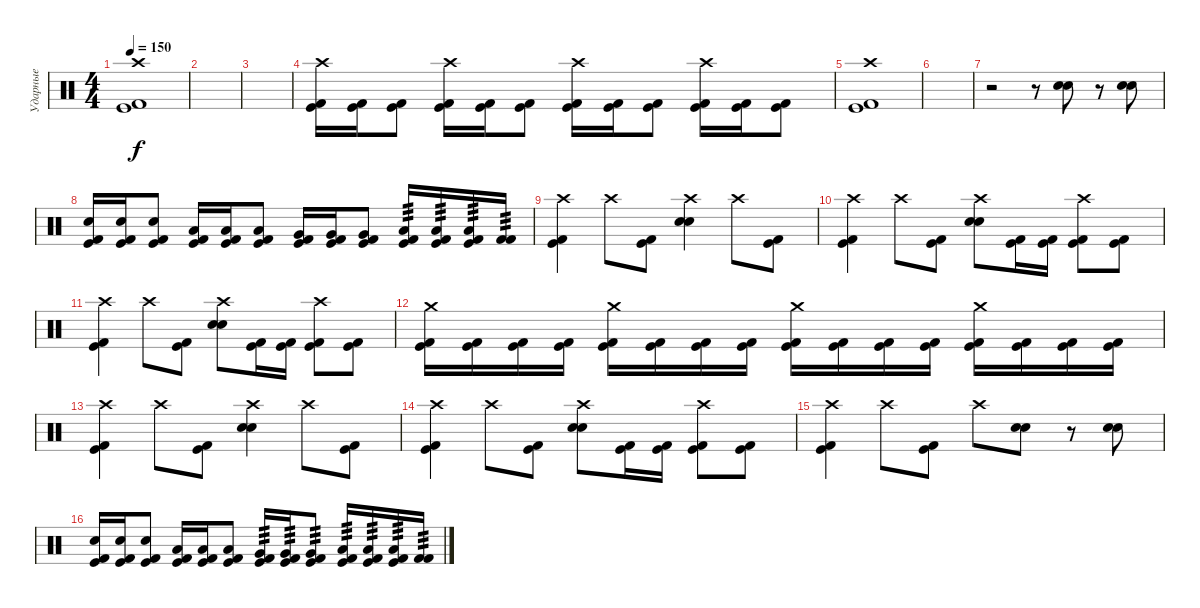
\track ("Ударные" "Ударные") {instrument percussion}
\staff {score}
\articulation defaults
\ts (4 4)
\tempo 150
\clef neutral
\ks c
("Kick (hit)" "Kick (hit) 2" "Crash high (hit)").1{dy f} |
|
|
("Kick (hit) 2" "Kick (hit)" "Crash high (hit)").16 ("Kick (hit) 2" "Kick (hit)").16 ("Kick (hit) 2" "Kick (hit)").8 ("Kick (hit) 2" "Kick (hit)" "Crash high (hit)").16 ("Kick (hit) 2" "Kick (hit)").16 ("Kick (hit) 2" "Kick (hit)").8 ("Kick (hit) 2" "Kick (hit)" "Crash high (hit)").16 ("Kick (hit) 2" "Kick (hit)").16 ("Kick (hit) 2" "Kick (hit)").8 ("Kick (hit) 2" "Kick (hit)" "Crash high (hit)").16 ("Kick (hit) 2" "Kick (hit)").16 ("Kick (hit) 2" "Kick (hit)").8 |
("Kick (hit)" "Kick (hit) 2" "Crash high (hit)").1 |
|
r.2 r.8 ("Snare (hit) 2" "Electric Snare (hit)").8 r.8 ("Snare (hit) 2" "Electric Snare (hit)").8 |
("Kick (hit) 2" "Kick (hit)" "Electric Snare (hit)").16 ("Kick (hit) 2" "Kick (hit)" "Electric Snare (hit)").16 ("Kick (hit) 2" "Kick (hit)" "Electric Snare (hit)").8 ("Kick (hit) 2" "Kick (hit)" "Low Tom (hit)").16 ("Kick (hit) 2" "Kick (hit)" "Low Tom (hit)").16 ("Kick (hit) 2" "Kick (hit)" "Low Tom (hit)").8 ("Kick (hit) 2" "Kick (hit)" "Very Low Tom (hit)").16 ("Kick (hit) 2" "Kick (hit)" "Very Low Tom (hit)").16 ("Kick (hit) 2" "Kick (hit)" "Very Low Tom (hit)").8 ("Kick (hit) 2" "Kick (hit)" "Low Floor Tom (hit)").16{tp 3} ("Kick (hit) 2" "Kick (hit)" "Low Floor Tom (hit)").16{tp 3} ("Kick (hit) 2" "Kick (hit)" "Low Floor Tom (hit)").16{tp 3} ("Kick (hit) 2" "Kick (hit) 2").16{tp 3} |
("Kick (hit) 2" "Kick (hit)" "Crash high (hit)").4 "Crash high (hit)".8 ("Kick (hit) 2" "Kick (hit)").8 ("Electric Snare (hit)" "Snare (hit) 2" "Crash high (hit)").4 "Crash high (hit)".8 ("Kick (hit) 2" "Kick (hit)").8 |
("Kick (hit) 2" "Kick (hit)" "Crash high (hit)").4 "Crash high (hit)".8 ("Kick (hit) 2" "Kick (hit)").8 ("Electric Snare (hit)" "Snare (hit) 2" "Crash high (hit)").8 ("Kick (hit) 2" "Kick (hit)").16 ("Kick (hit) 2" "Kick (hit)").16 ("Kick (hit) 2" "Kick (hit)" "Crash high (hit)").8 ("Kick (hit) 2" "Kick (hit)").8 |
("Kick (hit) 2" "Kick (hit)" "Crash high (hit)").4 "Crash high (hit)".8 ("Kick (hit) 2" "Kick (hit)").8 ("Electric Snare (hit)" "Snare (hit) 2" "Crash high (hit)").8 ("Kick (hit) 2" "Kick (hit)").16 ("Kick (hit) 2" "Kick (hit)").16 ("Kick (hit) 2" "Kick (hit)" "Crash high (hit)").8 ("Kick (hit) 2" "Kick (hit)").8 |
("Kick (hit)" "Kick (hit) 2" "Crash medium (hit)").16 ("Kick (hit)" "Kick (hit) 2").16 ("Kick (hit)" "Kick (hit) 2").16 ("Kick (hit)" "Kick (hit) 2").16 ("Kick (hit)" "Kick (hit) 2" "Crash medium (hit)").16 ("Kick (hit)" "Kick (hit) 2").16 ("Kick (hit)" "Kick (hit) 2").16 ("Kick (hit)" "Kick (hit) 2").16 ("Kick (hit)" "Kick (hit) 2" "Crash medium (hit)").16 ("Kick (hit)" "Kick (hit) 2").16 ("Kick (hit)" "Kick (hit) 2").16 ("Kick (hit)" "Kick (hit) 2").16 ("Kick (hit)" "Kick (hit) 2" "Crash medium (hit)").16 ("Kick (hit)" "Kick (hit) 2").16 ("Kick (hit)" "Kick (hit) 2").16 ("Kick (hit)" "Kick (hit) 2").16 |
("Kick (hit) 2" "Kick (hit)" "Crash high (hit)").4 "Crash high (hit)".8 ("Kick (hit) 2" "Kick (hit)").8 ("Electric Snare (hit)" "Snare (hit) 2" "Crash high (hit)").4 "Crash high (hit)".8 ("Kick (hit) 2" "Kick (hit)").8 |
("Kick (hit) 2" "Kick (hit)" "Crash high (hit)").4 "Crash high (hit)".8 ("Kick (hit) 2" "Kick (hit)").8 ("Electric Snare (hit)" "Snare (hit) 2" "Crash high (hit)").8 ("Kick (hit) 2" "Kick (hit)").16 ("Kick (hit) 2" "Kick (hit)").16 ("Kick (hit) 2" "Kick (hit)" "Crash high (hit)").8 ("Kick (hit) 2" "Kick (hit)").8 |
("Kick (hit) 2" "Kick (hit)" "Crash high (hit)").4 "Crash high (hit)".8 ("Kick (hit) 2" "Kick (hit)").8 "Crash high (hit)".8 ("Snare (hit) 2" "Electric Snare (hit)").8 r.8 ("Snare (hit) 2" "Electric Snare (hit)").8 |
("Kick (hit) 2" "Kick (hit)" "Electric Snare (hit)").16 ("Kick (hit) 2" "Kick (hit)" "Electric Snare (hit)").16 ("Kick (hit) 2" "Kick (hit)" "Electric Snare (hit)").8 ("Kick (hit) 2" "Kick (hit)" "Low Tom (hit)").16 ("Kick (hit) 2" "Kick (hit)" "Low Tom (hit)").16 ("Kick (hit) 2" "Kick (hit)" "Low Tom (hit)").8 ("Kick (hit) 2" "Kick (hit)" "Very Low Tom (hit)").16{tp 3} ("Kick (hit) 2" "Kick (hit)" "Very Low Tom (hit)").16{tp 3} ("Kick (hit) 2" "Kick (hit)" "Very Low Tom (hit)").8{tp 3} ("Kick (hit) 2" "Kick (hit)" "Low Floor Tom (hit)").16{tp 3} ("Kick (hit) 2" "Kick (hit)" "Low Floor Tom (hit)").16{tp 3} ("Kick (hit) 2" "Kick (hit)" "Low Floor Tom (hit)").16{tp 3} ("Kick (hit) 2" "Kick (hit) 2").16{tp 3}
